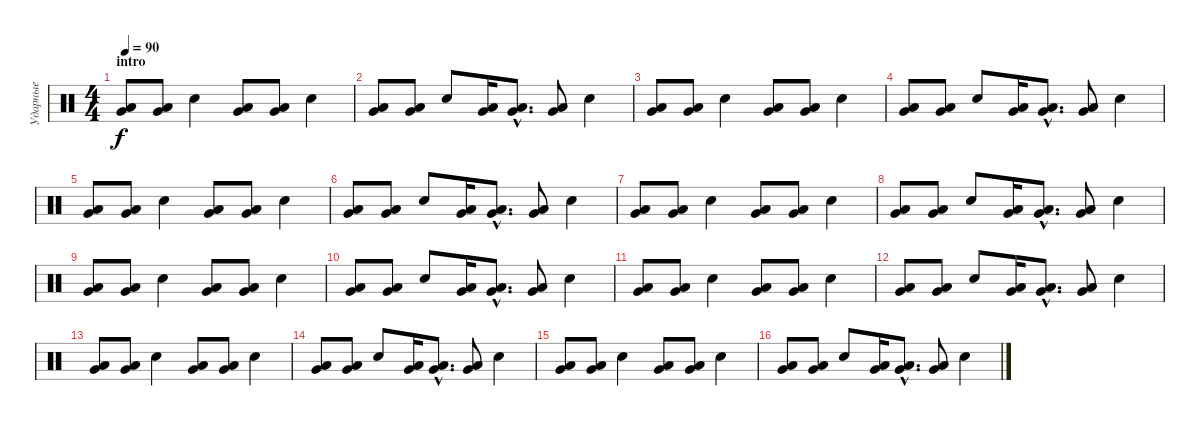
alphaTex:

\track ("Ударные" "Ударные") {instrument percussion}
\staff {score}
\articulation defaults
\ts (4 4)
\section ("" "intro")
\tempo 90
\clef neutral
\ks c
("Low Floor Tom (hit)" "Very Low Tom (hit)").8{dy f} ("Low Floor Tom (hit)" "Very Low Tom (hit)").8 "Snare (hit) 2".4 ("Low Floor Tom (hit)" "Very Low Tom (hit)").8 ("Low Floor Tom (hit)" "Very Low Tom (hit)").8 "Snare (hit) 2".4 |
("Low Floor Tom (hit)" "Very Low Tom (hit)").8 ("Low Floor Tom (hit)" "Very Low Tom (hit)").8 "Snare (hit) 2".8 ("Low Floor Tom (hit)" "Very Low Tom (hit)").16 ("Low Floor Tom (hit)"{hac} "Very Low Tom (hit)"{hac}).8{d} ("Low Floor Tom (hit)" "Very Low Tom (hit)").8 "Snare (hit) 2".4 |
("Low Floor Tom (hit)" "Very Low Tom (hit)").8 ("Low Floor Tom (hit)" "Very Low Tom (hit)").8 "Snare (hit) 2".4 ("Low Floor Tom (hit)" "Very Low Tom (hit)").8 ("Low Floor Tom (hit)" "Very Low Tom (hit)").8 "Snare (hit) 2".4 |
("Low Floor Tom (hit)" "Very Low Tom (hit)").8 ("Low Floor Tom (hit)" "Very Low Tom (hit)").8 "Snare (hit) 2".8 ("Low Floor Tom (hit)" "Very Low Tom (hit)").16 ("Low Floor Tom (hit)"{hac} "Very Low Tom (hit)"{hac}).8{d} ("Low Floor Tom (hit)" "Very Low Tom (hit)").8 "Snare (hit) 2".4 |
("Low Floor Tom (hit)" "Very Low Tom (hit)").8 ("Low Floor Tom (hit)" "Very Low Tom (hit)").8 "Snare (hit) 2".4 ("Low Floor Tom (hit)" "Very Low Tom (hit)").8 ("Low Floor Tom (hit)" "Very Low Tom (hit)").8 "Snare (hit) 2".4 |
("Low Floor Tom (hit)" "Very Low Tom (hit)").8 ("Low Floor Tom (hit)" "Very Low Tom (hit)").8 "Snare (hit) 2".8 ("Low Floor Tom (hit)" "Very Low Tom (hit)").16 ("Low Floor Tom (hit)"{hac} "Very Low Tom (hit)"{hac}).8{d} ("Low Floor Tom (hit)" "Very Low Tom (hit)").8 "Snare (hit) 2".4 |
("Low Floor Tom (hit)" "Very Low Tom (hit)").8 ("Low Floor Tom (hit)" "Very Low Tom (hit)").8 "Snare (hit) 2".4 ("Low Floor Tom (hit)" "Very Low Tom (hit)").8 ("Low Floor Tom (hit)" "Very Low Tom (hit)").8 "Snare (hit) 2".4 |
("Low Floor Tom (hit)" "Very Low Tom (hit)").8 ("Low Floor Tom (hit)" "Very Low Tom (hit)").8 "Snare (hit) 2".8 ("Low Floor Tom (hit)" "Very Low Tom (hit)").16 ("Low Floor Tom (hit)"{hac} "Very Low Tom (hit)"{hac}).8{d} ("Low Floor Tom (hit)" "Very Low Tom (hit)").8 "Snare (hit) 2".4 |
("Low Floor Tom (hit)" "Very Low Tom (hit)").8 ("Low Floor Tom (hit)" "Very Low Tom (hit)").8 "Snare (hit) 2".4 ("Low Floor Tom (hit)" "Very Low Tom (hit)").8 ("Low Floor Tom (hit)" "Very Low Tom (hit)").8 "Snare (hit) 2".4 |
("Low Floor Tom (hit)" "Very Low Tom (hit)").8 ("Low Floor Tom (hit)" "Very Low Tom (hit)").8 "Snare (hit) 2".8 ("Low Floor Tom (hit)" "Very Low Tom (hit)").16 ("Low Floor Tom (hit)"{hac} "Very Low Tom (hit)"{hac}).8{d} ("Low Floor Tom (hit)" "Very Low Tom (hit)").8 "Snare (hit) 2".4 |
("Low Floor Tom (hit)" "Very Low Tom (hit)").8 ("Low Floor Tom (hit)" "Very Low Tom (hit)").8 "Snare (hit) 2".4 ("Low Floor Tom (hit)" "Very Low Tom (hit)").8 ("Low Floor Tom (hit)" "Very Low Tom (hit)").8 "Snare (hit) 2".4 |
("Low Floor Tom (hit)" "Very Low Tom (hit)").8 ("Low Floor Tom (hit)" "Very Low Tom (hit)").8 "Snare (hit) 2".8 ("Low Floor Tom (hit)" "Very Low Tom (hit)").16 ("Low Floor Tom (hit)"{hac} "Very Low Tom (hit)"{hac}).8{d} ("Low Floor Tom (hit)" "Very Low Tom (hit)").8 "Snare (hit) 2".4 |
("Low Floor Tom (hit)" "Very Low Tom (hit)").8 ("Low Floor Tom (hit)" "Very Low Tom (hit)").8 "Snare (hit) 2".4 ("Low Floor Tom (hit)" "Very Low Tom (hit)").8 ("Low Floor Tom (hit)" "Very Low Tom (hit)").8 "Snare (hit) 2".4 |
("Low Floor Tom (hit)" "Very Low Tom (hit)").8 ("Low Floor Tom (hit)" "Very Low Tom (hit)").8 "Snare (hit) 2".8 ("Low Floor Tom (hit)" "Very Low Tom (hit)").16 ("Low Floor Tom (hit)"{hac} "Very Low Tom (hit)"{hac}).8{d} ("Low Floor Tom (hit)" "Very Low Tom (hit)").8 "Snare (hit) 2".4 |
("Low Floor Tom (hit)" "Very Low Tom (hit)").8 ("Low Floor Tom (hit)" "Very Low Tom (hit)").8 "Snare (hit) 2".4 ("Low Floor Tom (hit)" "Very Low Tom (hit)").8 ("Low Floor Tom (hit)" "Very Low Tom (hit)").8 "Snare (hit) 2".4 |
("Low Floor Tom (hit)" "Very Low Tom (hit)").8 ("Low Floor Tom (hit)" "Very Low Tom (hit)").8 "Snare (hit) 2".8 ("Low Floor Tom (hit)" "Very Low Tom (hit)").16 ("Low Floor Tom (hit)"{hac} "Very Low Tom (hit)"{hac}).8{d} ("Low Floor Tom (hit)" "Very Low Tom (hit)").8 "Snare (hit) 2".4
